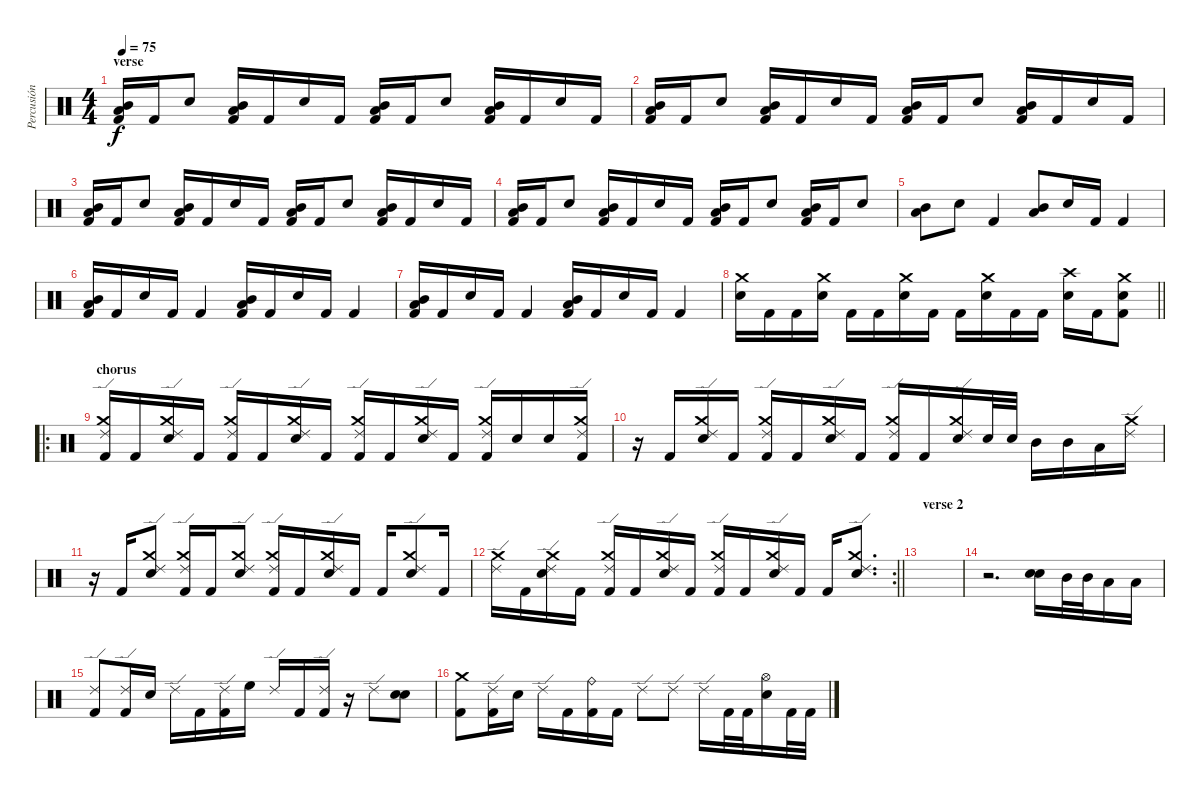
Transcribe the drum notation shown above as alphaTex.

\track ("Percusión" "Percusión") {instrument percussion}
\staff {score}
\articulation defaults
\ts (4 4)
\section ("" "verse")
\tempo 75
\clef neutral
\ks c
("Kick (hit) 2" "Mid Tom (hit)" "Low Tom (hit)").16{dy f} "Kick (hit) 2".16 "Electric Snare (hit)".8 ("Kick (hit) 2" "Mid Tom (hit)" "Low Tom (hit)").16 "Kick (hit) 2".16 "Electric Snare (hit)".16 "Kick (hit) 2".16 ("Kick (hit) 2" "Mid Tom (hit)" "Low Tom (hit)").16 "Kick (hit) 2".16 "Electric Snare (hit)".8 ("Kick (hit) 2" "Mid Tom (hit)" "Low Tom (hit)").16 "Kick (hit) 2".16 "Electric Snare (hit)".16 "Kick (hit) 2".16 |
("Kick (hit) 2" "Mid Tom (hit)" "Low Tom (hit)").16 "Kick (hit) 2".16 "Electric Snare (hit)".8 ("Kick (hit) 2" "Mid Tom (hit)" "Low Tom (hit)").16 "Kick (hit) 2".16 "Electric Snare (hit)".16 "Kick (hit) 2".16 ("Kick (hit) 2" "Mid Tom (hit)" "Low Tom (hit)").16 "Kick (hit) 2".16 "Electric Snare (hit)".8 ("Kick (hit) 2" "Mid Tom (hit)" "Low Tom (hit)").16 "Kick (hit) 2".16 "Electric Snare (hit)".16 "Kick (hit) 2".16 |
("Kick (hit) 2" "Mid Tom (hit)" "Low Tom (hit)").16 "Kick (hit) 2".16 "Electric Snare (hit)".8 ("Kick (hit) 2" "Mid Tom (hit)" "Low Tom (hit)").16 "Kick (hit) 2".16 "Electric Snare (hit)".16 "Kick (hit) 2".16 ("Kick (hit) 2" "Mid Tom (hit)" "Low Tom (hit)").16 "Kick (hit) 2".16 "Electric Snare (hit)".8 ("Kick (hit) 2" "Mid Tom (hit)" "Low Tom (hit)").16 "Kick (hit) 2".16 "Electric Snare (hit)".16 "Kick (hit) 2".16 |
("Kick (hit) 2" "Mid Tom (hit)" "Low Tom (hit)").16 "Kick (hit) 2".16 "Electric Snare (hit)".8 ("Kick (hit) 2" "Mid Tom (hit)" "Low Tom (hit)").16 "Kick (hit) 2".16 "Electric Snare (hit)".16 "Kick (hit) 2".16 ("Kick (hit) 2" "Mid Tom (hit)" "Low Tom (hit)").16 "Kick (hit) 2".16 "Electric Snare (hit)".8 ("Kick (hit) 2" "Mid Tom (hit)" "Low Tom (hit)").16 "Kick (hit) 2".16 "Electric Snare (hit)".8 |
("Mid Tom (hit)" "Low Tom (hit)").8 "Electric Snare (hit)".8 "Kick (hit) 2".4 ("Mid Tom (hit)" "Low Tom (hit)").8 "Electric Snare (hit)".16 "Kick (hit) 2".16 "Kick (hit) 2".4 |
("Kick (hit) 2" "Mid Tom (hit)" "Low Tom (hit)").16 "Kick (hit) 2".16 "Electric Snare (hit)".16 "Kick (hit) 2".16 "Kick (hit) 2".4 ("Kick (hit) 2" "Mid Tom (hit)" "Low Tom (hit)").16 "Kick (hit) 2".16 "Electric Snare (hit)".16 "Kick (hit) 2".16 "Kick (hit) 2".4 |
("Kick (hit) 2" "Mid Tom (hit)" "Low Tom (hit)").16 "Kick (hit) 2".16 "Electric Snare (hit)".16 "Kick (hit) 2".16 "Kick (hit) 2".4 ("Kick (hit) 2" "Mid Tom (hit)" "Low Tom (hit)").16 "Kick (hit) 2".16 "Electric Snare (hit)".16 "Kick (hit) 2".16 "Kick (hit) 2".4 |
\barLineRight lightlight
("Electric Snare (hit)" "Crash medium (hit)").16 "Kick (hit) 2".16 "Kick (hit) 2".16 ("Electric Snare (hit)" "Crash medium (hit)").16 "Kick (hit) 2".16 "Kick (hit) 2".16 ("Electric Snare (hit)" "Crash medium (hit)").16 "Kick (hit) 2".16 "Kick (hit) 2".16 ("Electric Snare (hit)" "Crash medium (hit)").16 "Kick (hit) 2".16 "Kick (hit) 2".16 ("Electric Snare (hit)" "Crash high (hit)").16 "Kick (hit) 2".16 ("Kick (hit) 2" "Electric Snare (hit)" "Crash medium (hit)").8 |
\ro
\section ("" "chorus")
("Kick (hit) 2" "Ride (edge) 2" "Crash medium (hit)").16 "Kick (hit) 2".16 ("Electric Snare (hit)" "Ride (edge) 2" "Crash medium (hit)").16 "Kick (hit) 2".16 ("Kick (hit) 2" "Ride (edge) 2" "Crash medium (hit)").16 "Kick (hit) 2".16 ("Electric Snare (hit)" "Ride (edge) 2" "Crash medium (hit)").16 "Kick (hit) 2".16 ("Kick (hit) 2" "Ride (edge) 2" "Crash medium (hit)").16 "Kick (hit) 2".16 ("Electric Snare (hit)" "Ride (edge) 2" "Crash medium (hit)").16 "Kick (hit) 2".16 ("Kick (hit) 2" "Ride (edge) 2" "Crash medium (hit)").16 "Electric Snare (hit)".16 "Electric Snare (hit)".16 ("Kick (hit) 2" "Crash medium (hit)" "Ride (edge) 2").16 |
r.16 "Kick (hit) 2".16 ("Electric Snare (hit)" "Ride (edge) 2" "Crash medium (hit)").16 "Kick (hit) 2".16 ("Kick (hit) 2" "Ride (edge) 2" "Crash medium (hit)").16 "Kick (hit) 2".16 ("Electric Snare (hit)" "Ride (edge) 2" "Crash medium (hit)").16 "Kick (hit) 2".16 ("Kick (hit) 2" "Ride (edge) 2" "Crash medium (hit)").16 "Kick (hit) 2".16 ("Electric Snare (hit)" "Ride (edge) 2" "Crash medium (hit)").16 "Electric Snare (hit)".32 "Electric Snare (hit)".32 "Mid Tom (hit)".16 "Mid Tom (hit)".16 "Low Tom (hit)".16 ("Ride (edge) 2" "Crash medium (hit)").16 |
r.16 "Kick (hit) 2".16 ("Electric Snare (hit)" "Ride (edge) 2" "Crash medium (hit)").8 ("Kick (hit) 2" "Ride (edge) 2" "Crash medium (hit)").16 "Kick (hit) 2".16 ("Electric Snare (hit)" "Ride (edge) 2" "Crash medium (hit)").8 ("Kick (hit) 2" "Ride (edge) 2" "Crash medium (hit)").16 "Kick (hit) 2".16 ("Electric Snare (hit)" "Ride (edge) 2" "Crash medium (hit)").16 "Kick (hit) 2".16 "Kick (hit) 2".16 ("Electric Snare (hit)" "Ride (edge) 2" "Crash medium (hit)").8 "Kick (hit) 2".16 |
\rc 2
\barLineRight lightlight
("Ride (edge) 2" "Crash medium (hit)").16 "Kick (hit) 2".16 ("Electric Snare (hit)" "Ride (edge) 2" "Crash medium (hit)").16 "Kick (hit) 2".16 ("Kick (hit) 2" "Crash medium (hit)" "Ride (edge) 2").16 "Kick (hit) 2".16 ("Electric Snare (hit)" "Ride (edge) 2" "Crash medium (hit)").16 "Kick (hit) 2".16 ("Kick (hit) 2" "Ride (edge) 2" "Crash medium (hit)").16 "Kick (hit) 2".16 ("Electric Snare (hit)" "Ride (edge) 2" "Crash medium (hit)").16 "Kick (hit) 2".16 "Kick (hit) 2".16 ("Electric Snare (hit)" "Ride (edge) 2" "Crash medium (hit)").8{d} |
\section ("" "verse 2")
|
r.2{d} ("Electric Snare (hit)" "Electric Snare (hit)").16 "Mid Tom (hit)".32 "Mid Tom (hit)".32 "Low Tom (hit)".16 "Low Tom (hit)".16 |
("Kick (hit) 2" "Ride (edge) 2").8 ("Kick (hit) 2" "Ride (edge) 2").16 "Electric Snare (hit)".16 "Ride (edge) 2".16 "Kick (hit) 2".16 ("Kick (hit) 2" "Ride (edge) 2").16 "High Floor Tom (hit)".16 "Ride (edge) 2".16 "Kick (hit) 2".16 ("Kick (hit) 2" "Ride (edge) 2").16 r.16 "Ride (edge) 2".8 ("Electric Snare (hit)" "Electric Snare (hit)").8 |
("Kick (hit) 2" "Crash medium (hit)").8 ("Kick (hit) 2" "Ride (edge) 2").16 "Electric Snare (hit)".16 "Ride (edge) 2".16 "Kick (hit) 2".16 ("Kick (hit) 2" "Ride (bell)").16 "Kick (hit) 2".16 "Ride (edge) 2".8 "Ride (edge) 2".8 "Ride (edge) 2".16 "Kick (hit) 2".32 "Kick (hit) 2".32 ("Electric Snare (hit)" "Hi-Hat (open)").16 "Kick (hit) 2".32 "Kick (hit) 2".32
